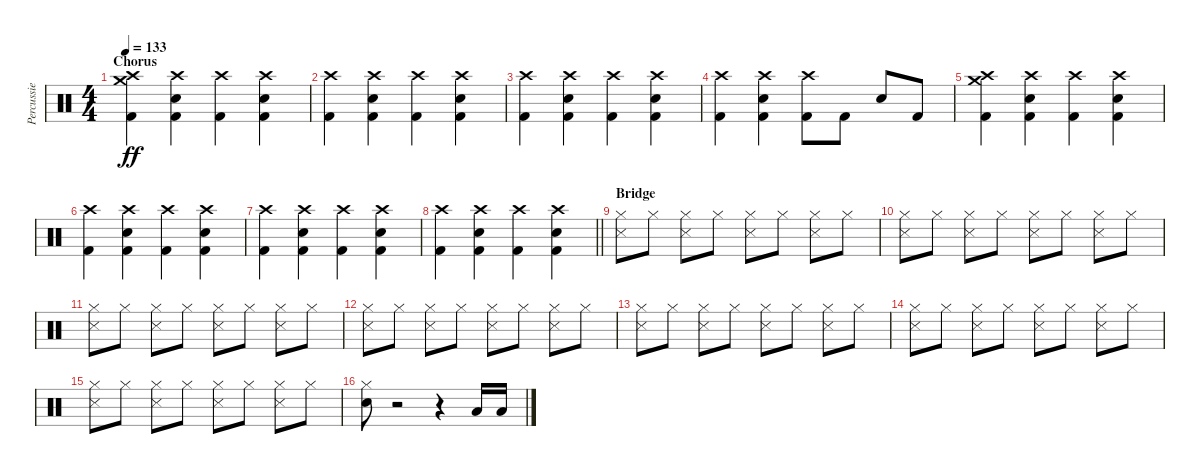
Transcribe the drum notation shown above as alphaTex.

\track ("Percussie" "Percussie") {instrument percussion}
\staff {score}
\articulation defaults
\ts (4 4)
\section ("" "Chorus")
\tempo 133
\clef neutral
\ks c
("Crash medium (hit)" "Crash high (hit)" "Kick (hit) 2").4{dy ff} ("Crash high (hit)" "Snare (hit) 2" "Kick (hit) 2").4 ("Crash high (hit)" "Kick (hit) 2").4 ("Crash high (hit)" "Snare (hit) 2" "Kick (hit) 2").4 |
("Crash high (hit)" "Kick (hit) 2").4 ("Crash high (hit)" "Snare (hit) 2" "Kick (hit) 2").4 ("Crash high (hit)" "Kick (hit) 2").4 ("Crash high (hit)" "Snare (hit) 2" "Kick (hit) 2").4 |
("Crash high (hit)" "Kick (hit) 2").4 ("Crash high (hit)" "Snare (hit) 2" "Kick (hit) 2").4 ("Crash high (hit)" "Kick (hit) 2").4 ("Crash high (hit)" "Snare (hit) 2" "Kick (hit) 2").4 |
("Crash high (hit)" "Kick (hit) 2").4 ("Crash high (hit)" "Snare (hit) 2" "Kick (hit) 2").4 ("Crash high (hit)" "Kick (hit) 2").8 "Kick (hit) 2".8 "Snare (hit) 2".8 "Kick (hit) 2".8 |
("Crash medium (hit)" "Crash high (hit)" "Kick (hit) 2").4 ("Crash high (hit)" "Snare (hit) 2" "Kick (hit) 2").4 ("Crash high (hit)" "Kick (hit) 2").4 ("Crash high (hit)" "Snare (hit) 2" "Kick (hit) 2").4 |
("Crash high (hit)" "Kick (hit) 2").4 ("Crash high (hit)" "Snare (hit) 2" "Kick (hit) 2").4 ("Crash high (hit)" "Kick (hit) 2").4 ("Crash high (hit)" "Snare (hit) 2" "Kick (hit) 2").4 |
("Crash high (hit)" "Kick (hit) 2").4 ("Crash high (hit)" "Snare (hit) 2" "Kick (hit) 2").4 ("Crash high (hit)" "Kick (hit) 2").4 ("Crash high (hit)" "Snare (hit) 2" "Kick (hit) 2").4 |
\barLineRight lightlight
("Crash high (hit)" "Kick (hit) 2").4 ("Crash high (hit)" "Snare (hit) 2" "Kick (hit) 2").4 ("Crash high (hit)" "Kick (hit) 2").4 ("Crash high (hit)" "Snare (hit) 2" "Kick (hit) 2").4 |
\section ("" "Bridge")
("Hi-Hat (closed)" "Snare (side stick) 3").8 "Hi-Hat (closed)".8 ("Hi-Hat (closed)" "Snare (side stick) 3").8 "Hi-Hat (closed)".8 ("Hi-Hat (closed)" "Snare (side stick) 3").8 "Hi-Hat (closed)".8 ("Hi-Hat (closed)" "Snare (side stick) 3").8 "Hi-Hat (closed)".8 |
("Hi-Hat (closed)" "Snare (side stick) 3").8 "Hi-Hat (closed)".8 ("Hi-Hat (closed)" "Snare (side stick) 3").8 "Hi-Hat (closed)".8 ("Hi-Hat (closed)" "Snare (side stick) 3").8 "Hi-Hat (closed)".8 ("Hi-Hat (closed)" "Snare (side stick) 3").8 "Hi-Hat (closed)".8 |
("Hi-Hat (closed)" "Snare (side stick) 3").8 "Hi-Hat (closed)".8 ("Hi-Hat (closed)" "Snare (side stick) 3").8 "Hi-Hat (closed)".8 ("Hi-Hat (closed)" "Snare (side stick) 3").8 "Hi-Hat (closed)".8 ("Hi-Hat (closed)" "Snare (side stick) 3").8 "Hi-Hat (closed)".8 |
("Hi-Hat (closed)" "Snare (side stick) 3").8 "Hi-Hat (closed)".8 ("Hi-Hat (closed)" "Snare (side stick) 3").8 "Hi-Hat (closed)".8 ("Hi-Hat (closed)" "Snare (side stick) 3").8 "Hi-Hat (closed)".8 ("Hi-Hat (closed)" "Snare (side stick) 3").8 "Hi-Hat (closed)".8 |
("Hi-Hat (closed)" "Snare (side stick) 3").8 "Hi-Hat (closed)".8 ("Hi-Hat (closed)" "Snare (side stick) 3").8 "Hi-Hat (closed)".8 ("Hi-Hat (closed)" "Snare (side stick) 3").8 "Hi-Hat (closed)".8 ("Hi-Hat (closed)" "Snare (side stick) 3").8 "Hi-Hat (closed)".8 |
("Hi-Hat (closed)" "Snare (side stick) 3").8 "Hi-Hat (closed)".8 ("Hi-Hat (closed)" "Snare (side stick) 3").8 "Hi-Hat (closed)".8 ("Hi-Hat (closed)" "Snare (side stick) 3").8 "Hi-Hat (closed)".8 ("Hi-Hat (closed)" "Snare (side stick) 3").8 "Hi-Hat (closed)".8 |
("Hi-Hat (closed)" "Snare (side stick) 3").8 "Hi-Hat (closed)".8 ("Hi-Hat (closed)" "Snare (side stick) 3").8 "Hi-Hat (closed)".8 ("Hi-Hat (closed)" "Snare (side stick) 3").8 "Hi-Hat (closed)".8 ("Hi-Hat (closed)" "Snare (side stick) 3").8 "Hi-Hat (closed)".8 |
("Hi-Hat (closed)" "Snare (hit) 2").8 r.2 r.4 "Low Floor Tom (hit)".16 "Low Floor Tom (hit)".16
